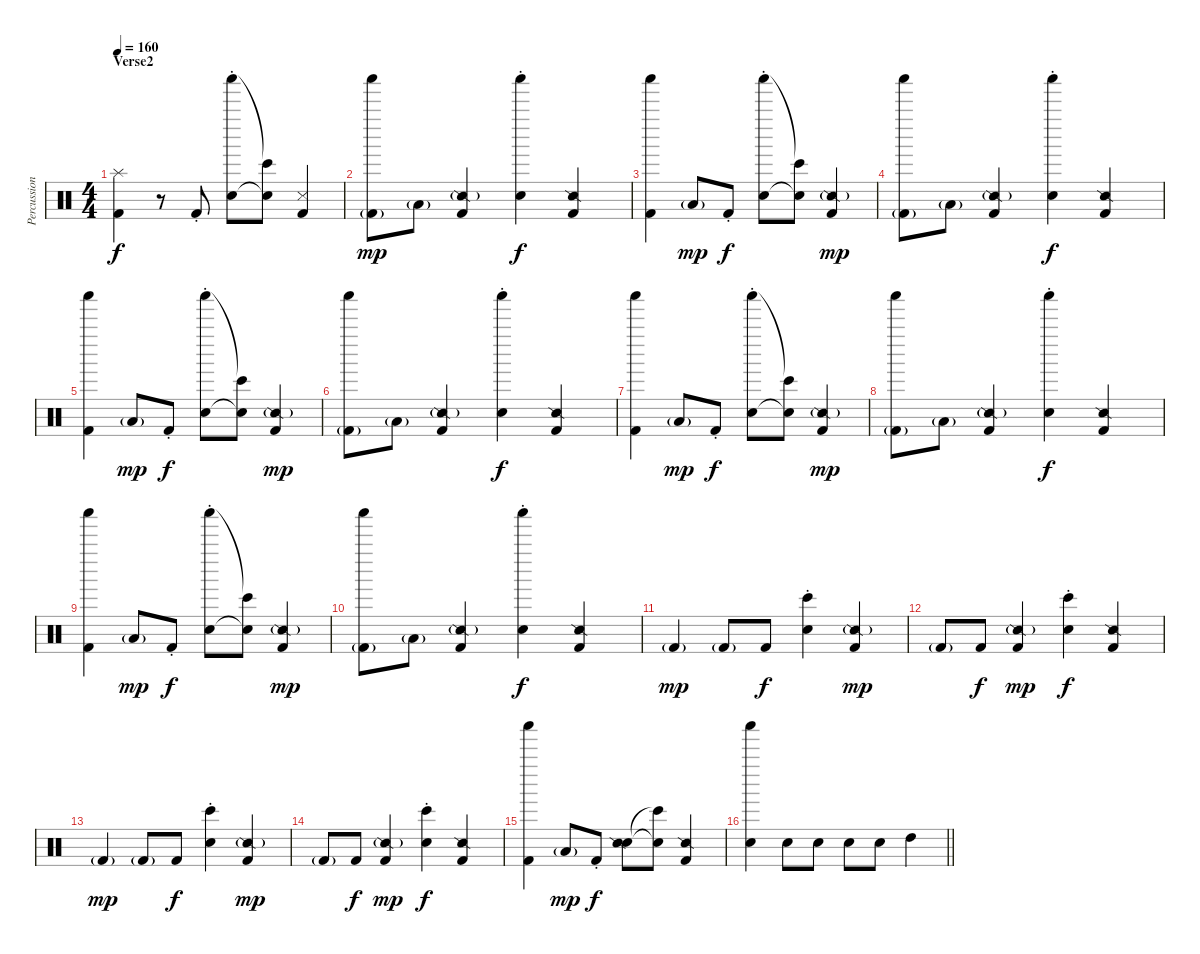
\track ("Percussion" "Percussion") {instrument percussion}
\staff {score}
\articulation defaults
\ts (4 4)
\section ("" "Verse2")
\tempo 160
\clef neutral
\ks c
("Kick (hit) 2" "Splash (hit)").4{dy f} r.8 "Kick (hit) 2"{st}.8 ("Electric Snare (hit)" "Shaker (hit)"{st}).8 ("Electric Snare (hit)"{t} "Bongo High (hit)"{t}).8 ("Kick (hit) 2" "Snare (side stick) 3").4 |
("Kick (hit) 2"{g} "Shaker (hit)").8{dy mp} "Low Tom (hit)"{g}.8 ("Kick (hit) 2" "Snare (side stick) 2"{g}).4 ("Electric Snare (hit)" "Shaker (hit)"{st}).4{dy f} ("Kick (hit) 2" "Snare (side stick) 2").4 |
("Kick (hit) 2" "Shaker (hit)").4 "Low Tom (hit)"{g}.8{dy mp} "Kick (hit) 2"{st}.8{dy f} ("Electric Snare (hit)" "Shaker (hit)"{st}).8 ("Electric Snare (hit)"{t} "Bongo High (hit)"{t}).8 ("Kick (hit) 2" "Snare (side stick) 2"{g}).4{dy mp} |
("Kick (hit) 2"{g} "Shaker (hit)").8 "Low Tom (hit)"{g}.8 ("Kick (hit) 2" "Snare (side stick) 2"{g}).4 ("Electric Snare (hit)" "Shaker (hit)"{st}).4{dy f} ("Kick (hit) 2" "Snare (side stick) 2").4 |
("Kick (hit) 2" "Shaker (hit)").4 "Low Tom (hit)"{g}.8{dy mp} "Kick (hit) 2"{st}.8{dy f} ("Electric Snare (hit)" "Shaker (hit)"{st}).8 ("Electric Snare (hit)"{t} "Bongo High (hit)"{t}).8 ("Kick (hit) 2" "Snare (side stick) 2"{g}).4{dy mp} |
("Kick (hit) 2"{g} "Shaker (hit)").8 "Low Tom (hit)"{g}.8 ("Kick (hit) 2" "Snare (side stick) 2"{g}).4 ("Electric Snare (hit)" "Shaker (hit)"{st}).4{dy f} ("Kick (hit) 2" "Snare (side stick) 2").4 |
("Kick (hit) 2" "Shaker (hit)").4 "Low Tom (hit)"{g}.8{dy mp} "Kick (hit) 2"{st}.8{dy f} ("Electric Snare (hit)" "Shaker (hit)"{st}).8 ("Electric Snare (hit)"{t} "Bongo High (hit)"{t}).8 ("Kick (hit) 2" "Snare (side stick) 2"{g}).4{dy mp} |
("Kick (hit) 2"{g} "Shaker (hit)").8 "Low Tom (hit)"{g}.8 ("Kick (hit) 2" "Snare (side stick) 2"{g}).4 ("Electric Snare (hit)" "Shaker (hit)"{st}).4{dy f} ("Kick (hit) 2" "Snare (side stick) 2").4 |
("Kick (hit) 2" "Shaker (hit)").4 "Low Tom (hit)"{g}.8{dy mp} "Kick (hit) 2"{st}.8{dy f} ("Electric Snare (hit)" "Shaker (hit)"{st}).8 ("Electric Snare (hit)"{t} "Bongo High (hit)"{t}).8 ("Kick (hit) 2" "Snare (side stick) 2"{g}).4{dy mp} |
("Kick (hit) 2"{g} "Shaker (hit)").8 "Low Tom (hit)"{g}.8 ("Kick (hit) 2" "Snare (side stick) 2"{g}).4 ("Electric Snare (hit)" "Shaker (hit)"{st}).4{dy f} ("Kick (hit) 2" "Snare (side stick) 2").4 |
"Kick (hit) 2"{g}.4{dy mp} "Kick (hit) 2"{g}.8 "Kick (hit) 2".8{dy f} ("Electric Snare (hit)" "Bongo High (hit)"{st}).4 ("Kick (hit) 2" "Snare (side stick) 2"{g}).4{dy mp} |
"Kick (hit) 2"{g}.8 "Kick (hit) 2".8{dy f} ("Kick (hit) 2" "Snare (side stick) 2"{g}).4{dy mp} ("Electric Snare (hit)" "Bongo High (hit)"{st}).4{dy f} ("Kick (hit) 2" "Snare (side stick) 2").4 |
"Kick (hit) 2"{g}.4{dy mp} "Kick (hit) 2"{g}.8 "Kick (hit) 2".8{dy f} ("Electric Snare (hit)" "Bongo High (hit)"{st}).4 ("Kick (hit) 2" "Snare (side stick) 2"{g}).4{dy mp} |
"Kick (hit) 2"{g}.8 "Kick (hit) 2".8{dy f} ("Kick (hit) 2" "Snare (side stick) 2"{g}).4{dy mp} ("Electric Snare (hit)" "Bongo High (hit)"{st}).4{dy f} ("Kick (hit) 2" "Snare (side stick) 2").4 |
("Kick (hit) 2" "Shaker (hit)").4 "Low Tom (hit)"{g}.8{dy mp} "Kick (hit) 2"{st}.8{dy f} ("Electric Snare (hit)" "Snare (side stick) 2").8 ("Electric Snare (hit)"{t} "Bongo High (hit)"{t}).8 ("Kick (hit) 2" "Snare (side stick) 2").4 |
\barLineRight lightlight
("Electric Snare (hit)" "Shaker (hit)").4 "Electric Snare (hit)".8 "Electric Snare (hit)".8 "Electric Snare (hit)".8 "Electric Snare (hit)".8 "High Tom (hit)".4
